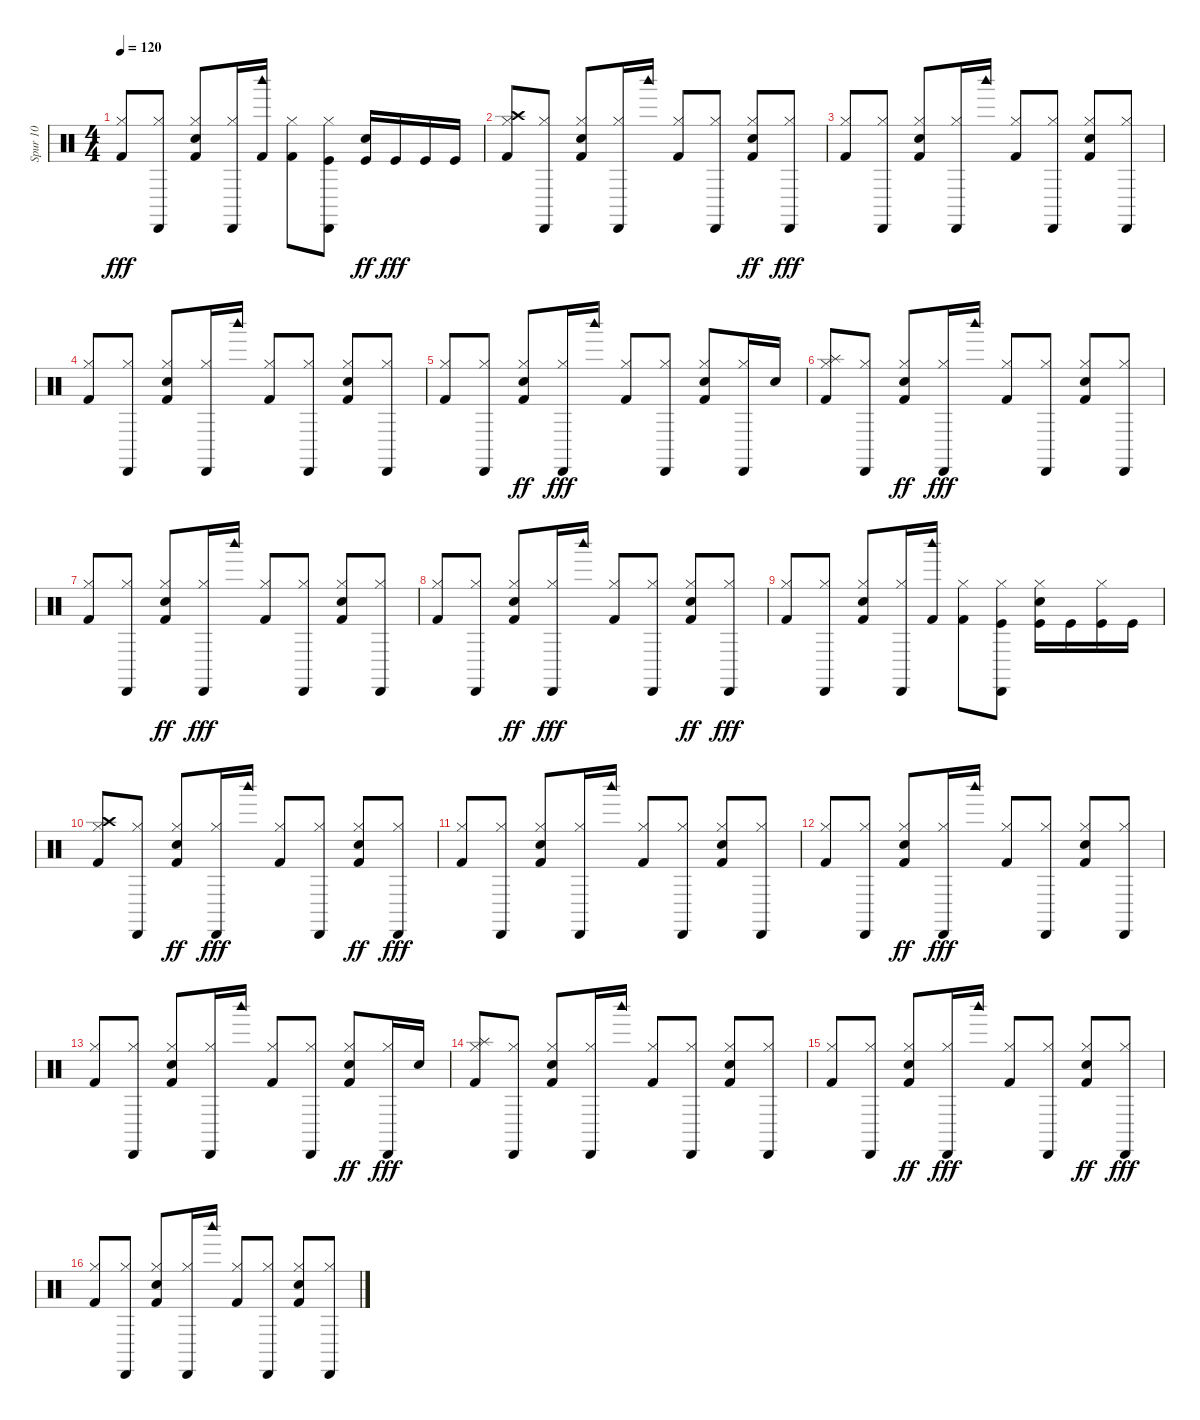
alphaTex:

\track ("Spur 10" "Spur 10") {instrument percussion}
\staff {score}
\articulation defaults
\ts (4 4)
\tempo 120
\clef neutral
\ks c
("Kick (hit) 2" "Hi-Hat (closed)").8{dy fff} ("Hi-Hat (closed)" "Cabasa (hit)").8 ("Hi-Hat (closed)" "Hand Clap (hit)" "Kick (hit) 2").8 ("Hi-Hat (closed)" "Cabasa (hit)").16 ("Woodblock high (hit)" "Kick (hit) 2").16 ("Kick (hit) 2" "Hi-Hat (closed)").8 ("Cabasa (hit)" "Hi-Hat (closed)" "Kick (hit)").8 ("Kick (hit)" "Hand Clap (hit)").16{dy ff} "Kick (hit)".16{dy fff} "Kick (hit)".16 "Kick (hit)".16 |
("Crash high (hit)" "Kick (hit) 2" "Hi-Hat (closed)").8 ("Cabasa (hit)" "Hi-Hat (closed)").8 ("Hand Clap (hit)" "Kick (hit) 2" "Hi-Hat (closed)").8 ("Cabasa (hit)" "Hi-Hat (closed)").16 "Woodblock high (hit)".16 ("Hi-Hat (closed)" "Kick (hit) 2").8 ("Hi-Hat (closed)" "Cabasa (hit)").8 ("Kick (hit) 2" "Hi-Hat (closed)" "Hand Clap (hit)").8{dy ff} ("Cabasa (hit)" "Hi-Hat (closed)").8{dy fff} |
("Kick (hit) 2" "Hi-Hat (closed)").8 ("Cabasa (hit)" "Hi-Hat (closed)").8 ("Hand Clap (hit)" "Kick (hit) 2" "Hi-Hat (closed)").8 ("Cabasa (hit)" "Hi-Hat (closed)").16 "Woodblock high (hit)".16 ("Hi-Hat (closed)" "Kick (hit) 2").8 ("Cabasa (hit)" "Hi-Hat (closed)").8 ("Hand Clap (hit)" "Kick (hit) 2" "Hi-Hat (closed)").8 ("Hi-Hat (closed)" "Cabasa (hit)").8 |
("Hi-Hat (closed)" "Kick (hit) 2").8 ("Hi-Hat (closed)" "Cabasa (hit)").8 ("Hand Clap (hit)" "Kick (hit) 2" "Hi-Hat (closed)").8 ("Cabasa (hit)" "Hi-Hat (closed)").16 "Woodblock high (hit)".16 ("Hi-Hat (closed)" "Kick (hit) 2").8 ("Cabasa (hit)" "Hi-Hat (closed)").8 ("Hand Clap (hit)" "Kick (hit) 2" "Hi-Hat (closed)").8 ("Cabasa (hit)" "Hi-Hat (closed)").8 |
("Hi-Hat (closed)" "Kick (hit) 2").8 ("Cabasa (hit)" "Hi-Hat (closed)").8 ("Kick (hit) 2" "Hi-Hat (closed)" "Hand Clap (hit)").8{dy ff} ("Cabasa (hit)" "Hi-Hat (closed)").16{dy fff} "Woodblock high (hit)".16 ("Kick (hit) 2" "Hi-Hat (closed)").8 ("Hi-Hat (closed)" "Cabasa (hit)").8 ("Hand Clap (hit)" "Kick (hit) 2" "Hi-Hat (closed)").8 ("Hi-Hat (closed)" "Cabasa (hit)").16 "Hand Clap (hit)".16 |
("Kick (hit) 2" "Hi-Hat (closed)" "Splash (hit)").8 ("Cabasa (hit)" "Hi-Hat (closed)").8 ("Hi-Hat (closed)" "Kick (hit) 2" "Hand Clap (hit)").8{dy ff} ("Cabasa (hit)" "Hi-Hat (closed)").16{dy fff} "Woodblock high (hit)".16 ("Hi-Hat (closed)" "Kick (hit) 2").8 ("Hi-Hat (closed)" "Cabasa (hit)").8 ("Kick (hit) 2" "Hand Clap (hit)" "Hi-Hat (closed)").8 ("Cabasa (hit)" "Hi-Hat (closed)").8 |
("Hi-Hat (closed)" "Kick (hit) 2").8 ("Hi-Hat (closed)" "Cabasa (hit)").8 ("Kick (hit) 2" "Hi-Hat (closed)" "Hand Clap (hit)").8{dy ff} ("Cabasa (hit)" "Hi-Hat (closed)").16{dy fff} "Woodblock high (hit)".16 ("Kick (hit) 2" "Hi-Hat (closed)").8 ("Hi-Hat (closed)" "Cabasa (hit)").8 ("Hi-Hat (closed)" "Hand Clap (hit)" "Kick (hit) 2").8 ("Cabasa (hit)" "Hi-Hat (closed)").8 |
("Kick (hit) 2" "Hi-Hat (closed)").8 ("Hi-Hat (closed)" "Cabasa (hit)").8 ("Kick (hit) 2" "Hi-Hat (closed)" "Hand Clap (hit)").8{dy ff} ("Cabasa (hit)" "Hi-Hat (closed)").16{dy fff} "Woodblock high (hit)".16 ("Hi-Hat (closed)" "Kick (hit) 2").8 ("Hi-Hat (closed)" "Cabasa (hit)").8 ("Kick (hit) 2" "Hi-Hat (closed)" "Hand Clap (hit)").8{dy ff} ("Cabasa (hit)" "Hi-Hat (closed)").8{dy fff} |
("Kick (hit) 2" "Hi-Hat (closed)").8 ("Hi-Hat (closed)" "Cabasa (hit)").8 ("Hi-Hat (closed)" "Hand Clap (hit)" "Kick (hit) 2").8 ("Hi-Hat (closed)" "Cabasa (hit)").16 ("Kick (hit) 2" "Woodblock high (hit)").16 ("Kick (hit) 2" "Hi-Hat (closed)").8 ("Hi-Hat (closed)" "Kick (hit)" "Cabasa (hit)").8 ("Kick (hit)" "Hand Clap (hit)" "Hi-Hat (closed)").16 "Kick (hit)".16 ("Kick (hit)" "Hi-Hat (closed)").16 "Kick (hit)".16 |
("Kick (hit) 2" "Crash high (hit)" "Hi-Hat (closed)").8 ("Cabasa (hit)" "Hi-Hat (closed)").8 ("Kick (hit) 2" "Hi-Hat (closed)" "Hand Clap (hit)").8{dy ff} ("Hi-Hat (closed)" "Cabasa (hit)").16{dy fff} "Woodblock high (hit)".16 ("Hi-Hat (closed)" "Kick (hit) 2").8 ("Hi-Hat (closed)" "Cabasa (hit)").8 ("Hi-Hat (closed)" "Kick (hit) 2" "Hand Clap (hit)").8{dy ff} ("Hi-Hat (closed)" "Cabasa (hit)").8{dy fff} |
("Hi-Hat (closed)" "Kick (hit) 2").8 ("Hi-Hat (closed)" "Cabasa (hit)").8 ("Kick (hit) 2" "Hand Clap (hit)" "Hi-Hat (closed)").8 ("Hi-Hat (closed)" "Cabasa (hit)").16 "Woodblock high (hit)".16 ("Kick (hit) 2" "Hi-Hat (closed)").8 ("Hi-Hat (closed)" "Cabasa (hit)").8 ("Hi-Hat (closed)" "Hand Clap (hit)" "Kick (hit) 2").8 ("Hi-Hat (closed)" "Cabasa (hit)").8 |
("Kick (hit) 2" "Hi-Hat (closed)").8 ("Cabasa (hit)" "Hi-Hat (closed)").8 ("Hi-Hat (closed)" "Kick (hit) 2" "Hand Clap (hit)").8{dy ff} ("Hi-Hat (closed)" "Cabasa (hit)").16{dy fff} "Woodblock high (hit)".16 ("Hi-Hat (closed)" "Kick (hit) 2").8 ("Cabasa (hit)" "Hi-Hat (closed)").8 ("Hi-Hat (closed)" "Hand Clap (hit)" "Kick (hit) 2").8 ("Hi-Hat (closed)" "Cabasa (hit)").8 |
("Hi-Hat (closed)" "Kick (hit) 2").8 ("Hi-Hat (closed)" "Cabasa (hit)").8 ("Hand Clap (hit)" "Kick (hit) 2" "Hi-Hat (closed)").8 ("Hi-Hat (closed)" "Cabasa (hit)").16 "Woodblock high (hit)".16 ("Kick (hit) 2" "Hi-Hat (closed)").8 ("Cabasa (hit)" "Hi-Hat (closed)").8 ("Kick (hit) 2" "Hi-Hat (closed)" "Hand Clap (hit)").8{dy ff} ("Hi-Hat (closed)" "Cabasa (hit)").16{dy fff} "Hand Clap (hit)".16 |
("Kick (hit) 2" "Hi-Hat (closed)" "Splash (hit)").8 ("Cabasa (hit)" "Hi-Hat (closed)").8 ("Hand Clap (hit)" "Kick (hit) 2" "Hi-Hat (closed)").8 ("Hi-Hat (closed)" "Cabasa (hit)").16 "Woodblock high (hit)".16 ("Hi-Hat (closed)" "Kick (hit) 2").8 ("Hi-Hat (closed)" "Cabasa (hit)").8 ("Hi-Hat (closed)" "Hand Clap (hit)" "Kick (hit) 2").8 ("Cabasa (hit)" "Hi-Hat (closed)").8 |
("Kick (hit) 2" "Hi-Hat (closed)").8 ("Cabasa (hit)" "Hi-Hat (closed)").8 ("Kick (hit) 2" "Hi-Hat (closed)" "Hand Clap (hit)").8{dy ff} ("Hi-Hat (closed)" "Cabasa (hit)").16{dy fff} "Woodblock high (hit)".16 ("Hi-Hat (closed)" "Kick (hit) 2").8 ("Cabasa (hit)" "Hi-Hat (closed)").8 ("Kick (hit) 2" "Hi-Hat (closed)" "Hand Clap (hit)").8{dy ff} ("Hi-Hat (closed)" "Cabasa (hit)").8{dy fff} |
("Hi-Hat (closed)" "Kick (hit) 2").8 ("Hi-Hat (closed)" "Cabasa (hit)").8 ("Hi-Hat (closed)" "Hand Clap (hit)" "Kick (hit) 2").8 ("Hi-Hat (closed)" "Cabasa (hit)").16 "Woodblock high (hit)".16 ("Kick (hit) 2" "Hi-Hat (closed)").8 ("Hi-Hat (closed)" "Cabasa (hit)").8 ("Kick (hit) 2" "Hand Clap (hit)" "Hi-Hat (closed)").8 ("Hi-Hat (closed)" "Cabasa (hit)").8
